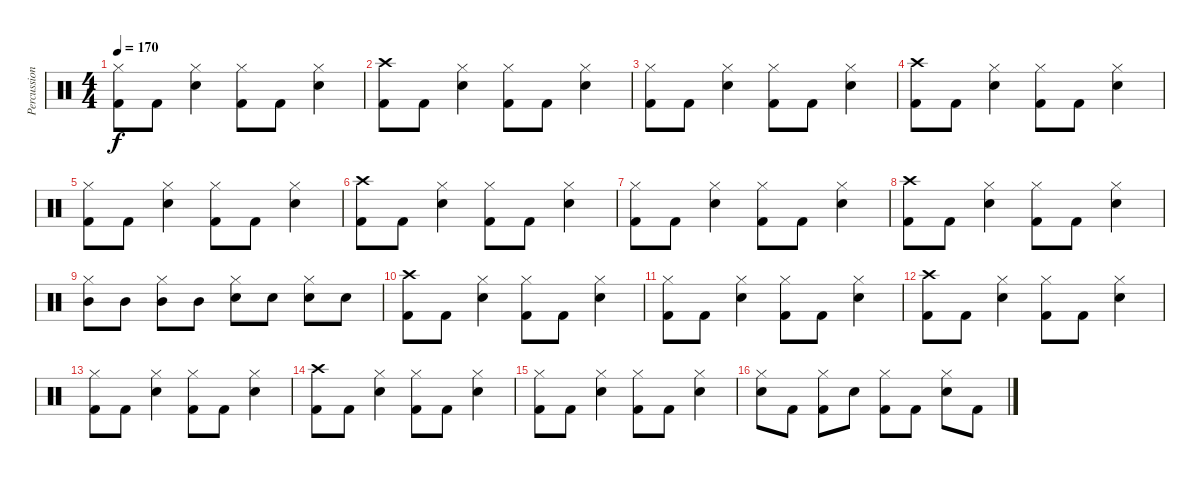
\track ("Percussion" "Percussion") {instrument percussion}
\staff {score}
\articulation defaults
\ts (4 4)
\tempo 170
\clef neutral
\ks c
("Hi-Hat (closed)" "Kick (hit) 2").8{dy f} "Kick (hit) 2".8 ("Hi-Hat (closed)" "Electric Snare (hit)").4 ("Hi-Hat (closed)" "Kick (hit) 2").8 "Kick (hit) 2".8 ("Hi-Hat (closed)" "Electric Snare (hit)").4 |
("Crash high (hit)" "Kick (hit) 2").8 "Kick (hit) 2".8 ("Hi-Hat (closed)" "Electric Snare (hit)").4 ("Hi-Hat (closed)" "Kick (hit) 2").8 "Kick (hit) 2".8 ("Hi-Hat (closed)" "Electric Snare (hit)").4 |
("Hi-Hat (closed)" "Kick (hit) 2").8 "Kick (hit) 2".8 ("Hi-Hat (closed)" "Electric Snare (hit)").4 ("Hi-Hat (closed)" "Kick (hit) 2").8 "Kick (hit) 2".8 ("Hi-Hat (closed)" "Electric Snare (hit)").4 |
("Crash high (hit)" "Kick (hit) 2").8 "Kick (hit) 2".8 ("Hi-Hat (closed)" "Electric Snare (hit)").4 ("Hi-Hat (closed)" "Kick (hit) 2").8 "Kick (hit) 2".8 ("Hi-Hat (closed)" "Electric Snare (hit)").4 |
("Hi-Hat (closed)" "Kick (hit) 2").8 "Kick (hit) 2".8 ("Hi-Hat (closed)" "Electric Snare (hit)").4 ("Hi-Hat (closed)" "Kick (hit) 2").8 "Kick (hit) 2".8 ("Hi-Hat (closed)" "Electric Snare (hit)").4 |
("Crash high (hit)" "Kick (hit) 2").8 "Kick (hit) 2".8 ("Hi-Hat (closed)" "Electric Snare (hit)").4 ("Hi-Hat (closed)" "Kick (hit) 2").8 "Kick (hit) 2".8 ("Hi-Hat (closed)" "Electric Snare (hit)").4 |
("Hi-Hat (closed)" "Kick (hit) 2").8 "Kick (hit) 2".8 ("Hi-Hat (closed)" "Electric Snare (hit)").4 ("Hi-Hat (closed)" "Kick (hit) 2").8 "Kick (hit) 2".8 ("Hi-Hat (closed)" "Electric Snare (hit)").4 |
("Crash high (hit)" "Kick (hit) 2").8 "Kick (hit) 2".8 ("Hi-Hat (closed)" "Electric Snare (hit)").4 ("Hi-Hat (closed)" "Kick (hit) 2").8 "Kick (hit) 2".8 ("Hi-Hat (closed)" "Electric Snare (hit)").4 |
("Hi-Hat (closed)" "Mid Tom (hit)").8 "Mid Tom (hit)".8 ("Hi-Hat (closed)" "Mid Tom (hit)").8 "Mid Tom (hit)".8 ("Hi-Hat (closed)" "Electric Snare (hit)").8 "Electric Snare (hit)".8 ("Hi-Hat (closed)" "Electric Snare (hit)").8 "Electric Snare (hit)".8 |
("Crash high (hit)" "Kick (hit) 2").8 "Kick (hit) 2".8 ("Hi-Hat (closed)" "Electric Snare (hit)").4 ("Hi-Hat (closed)" "Kick (hit) 2").8 "Kick (hit) 2".8 ("Hi-Hat (closed)" "Electric Snare (hit)").4 |
("Hi-Hat (closed)" "Kick (hit) 2").8 "Kick (hit) 2".8 ("Hi-Hat (closed)" "Electric Snare (hit)").4 ("Hi-Hat (closed)" "Kick (hit) 2").8 "Kick (hit) 2".8 ("Hi-Hat (closed)" "Electric Snare (hit)").4 |
("Crash high (hit)" "Kick (hit) 2").8 "Kick (hit) 2".8 ("Hi-Hat (closed)" "Electric Snare (hit)").4 ("Hi-Hat (closed)" "Kick (hit) 2").8 "Kick (hit) 2".8 ("Hi-Hat (closed)" "Electric Snare (hit)").4 |
("Hi-Hat (closed)" "Kick (hit) 2").8 "Kick (hit) 2".8 ("Hi-Hat (closed)" "Electric Snare (hit)").4 ("Hi-Hat (closed)" "Kick (hit) 2").8 "Kick (hit) 2".8 ("Hi-Hat (closed)" "Electric Snare (hit)").4 |
("Crash high (hit)" "Kick (hit) 2").8 "Kick (hit) 2".8 ("Hi-Hat (closed)" "Electric Snare (hit)").4 ("Hi-Hat (closed)" "Kick (hit) 2").8 "Kick (hit) 2".8 ("Hi-Hat (closed)" "Electric Snare (hit)").4 |
("Hi-Hat (closed)" "Kick (hit) 2").8 "Kick (hit) 2".8 ("Hi-Hat (closed)" "Electric Snare (hit)").4 ("Hi-Hat (closed)" "Kick (hit) 2").8 "Kick (hit) 2".8 ("Hi-Hat (closed)" "Electric Snare (hit)").4 |
("Hi-Hat (closed)" "Electric Snare (hit)").8 "Kick (hit) 2".8 ("Hi-Hat (closed)" "Kick (hit) 2").8 "Electric Snare (hit)".8 ("Hi-Hat (closed)" "Kick (hit) 2").8 "Kick (hit) 2".8 ("Hi-Hat (closed)" "Electric Snare (hit)").8 "Kick (hit) 2".8
